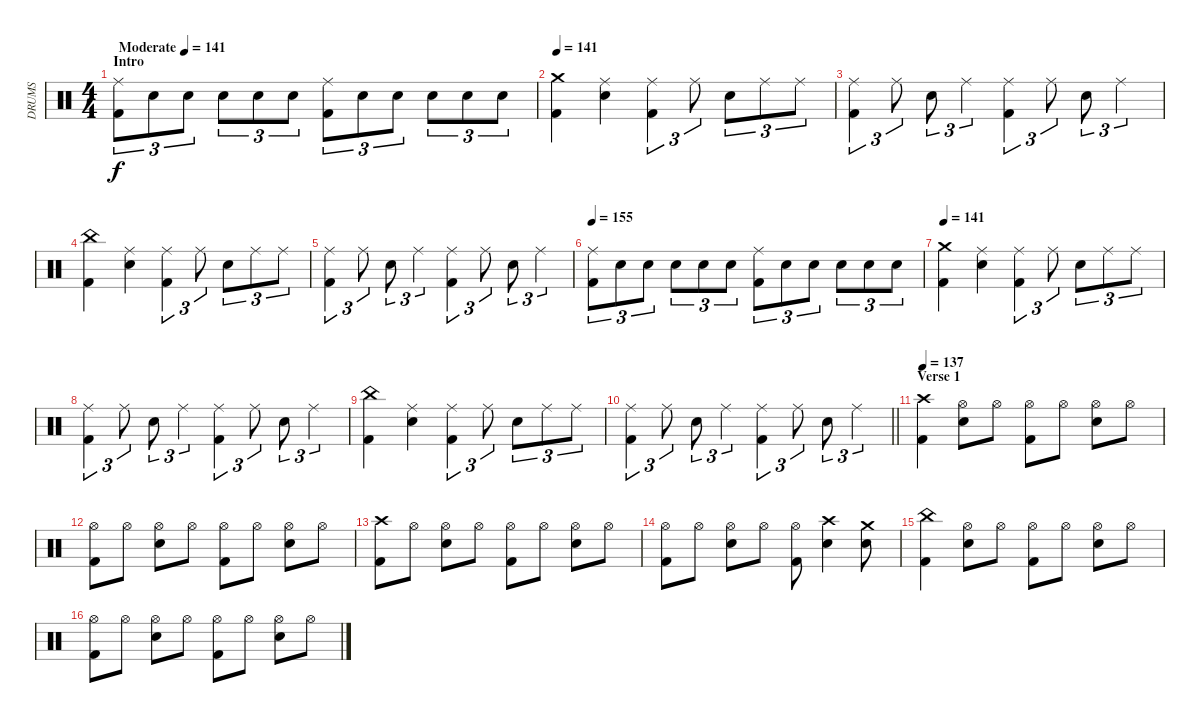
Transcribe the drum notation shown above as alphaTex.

\track ("DRUMS" "DRUMS") {instrument percussion}
\staff {score}
\articulation defaults
\ts (4 4)
\section ("" "Intro")
\tempo (141 "Moderate")
\tempo 157
\tempo (141 "Moderate")
\clef neutral
\ks c
("Ride (middle)" "Kick (hit) 2").8{tu (3 2) dy f} "Snare (hit) 2".8{tu (3 2)} "Snare (hit) 2".8{tu (3 2)} "Snare (hit) 2".8{tu (3 2)} "Snare (hit) 2".8{tu (3 2)} "Snare (hit) 2".8{tu (3 2)} ("Ride (middle)" "Kick (hit) 2").8{tu (3 2)} "Snare (hit) 2".8{tu (3 2)} "Snare (hit) 2".8{tu (3 2)} "Snare (hit) 2".8{tu (3 2)} "Snare (hit) 2".8{tu (3 2)} "Snare (hit) 2".8{tu (3 2)} |
\tempo 141
("Crash medium (hit)" "Kick (hit) 2").4 ("Ride (middle)" "Snare (hit) 2").4 ("Ride (middle)" "Kick (hit) 2").4{tu (3 2)} "Ride (middle)".8{tu (3 2)} "Snare (hit) 2".8{tu (3 2)} "Ride (middle)".8{tu (3 2)} "Ride (middle)".8{tu (3 2)} |
("Ride (middle)" "Kick (hit) 2").4{tu (3 2)} "Ride (middle)".8{tu (3 2)} "Snare (hit) 2".8{tu (3 2)} "Ride (middle)".4{tu (3 2)} ("Ride (middle)" "Kick (hit) 2").4{tu (3 2)} "Ride (middle)".8{tu (3 2)} "Snare (hit) 2".8{tu (3 2)} "Ride (middle)".4{tu (3 2)} |
("China (hit)" "Kick (hit) 2").4 ("Ride (middle)" "Snare (hit) 2").4 ("Ride (middle)" "Kick (hit) 2").4{tu (3 2)} "Ride (middle)".8{tu (3 2)} "Snare (hit) 2".8{tu (3 2)} "Ride (middle)".8{tu (3 2)} "Ride (middle)".8{tu (3 2)} |
("Ride (middle)" "Kick (hit) 2").4{tu (3 2)} "Ride (middle)".8{tu (3 2)} "Snare (hit) 2".8{tu (3 2)} "Ride (middle)".4{tu (3 2)} ("Ride (middle)" "Kick (hit) 2").4{tu (3 2)} "Ride (middle)".8{tu (3 2)} "Snare (hit) 2".8{tu (3 2)} "Ride (middle)".4{tu (3 2)} |
\tempo 155
("Ride (middle)" "Kick (hit) 2").8{tu (3 2)} "Snare (hit) 2".8{tu (3 2)} "Snare (hit) 2".8{tu (3 2)} "Snare (hit) 2".8{tu (3 2)} "Snare (hit) 2".8{tu (3 2)} "Snare (hit) 2".8{tu (3 2)} ("Ride (middle)" "Kick (hit) 2").8{tu (3 2)} "Snare (hit) 2".8{tu (3 2)} "Snare (hit) 2".8{tu (3 2)} "Snare (hit) 2".8{tu (3 2)} "Snare (hit) 2".8{tu (3 2)} "Snare (hit) 2".8{tu (3 2)} |
\tempo 141
("Crash medium (hit)" "Kick (hit) 2").4 ("Ride (middle)" "Snare (hit) 2").4 ("Ride (middle)" "Kick (hit) 2").4{tu (3 2)} "Ride (middle)".8{tu (3 2)} "Snare (hit) 2".8{tu (3 2)} "Ride (middle)".8{tu (3 2)} "Ride (middle)".8{tu (3 2)} |
("Ride (middle)" "Kick (hit) 2").4{tu (3 2)} "Ride (middle)".8{tu (3 2)} "Snare (hit) 2".8{tu (3 2)} "Ride (middle)".4{tu (3 2)} ("Ride (middle)" "Kick (hit) 2").4{tu (3 2)} "Ride (middle)".8{tu (3 2)} "Snare (hit) 2".8{tu (3 2)} "Ride (middle)".4{tu (3 2)} |
("China (hit)" "Kick (hit) 2").4 ("Ride (middle)" "Snare (hit) 2").4 ("Ride (middle)" "Kick (hit) 2").4{tu (3 2)} "Ride (middle)".8{tu (3 2)} "Snare (hit) 2".8{tu (3 2)} "Ride (middle)".8{tu (3 2)} "Ride (middle)".8{tu (3 2)} |
\barLineRight lightlight
("Ride (middle)" "Kick (hit) 2").4{tu (3 2)} "Ride (middle)".8{tu (3 2)} "Snare (hit) 2".8{tu (3 2)} "Ride (middle)".4{tu (3 2)} ("Ride (middle)" "Kick (hit) 2").4{tu (3 2)} "Ride (middle)".8{tu (3 2)} "Snare (hit) 2".8{tu (3 2)} "Ride (middle)".4{tu (3 2)} |
\section ("" "Verse 1")
\tempo 137
("Crash high (hit)" "Kick (hit) 2").4 ("Hi-Hat (open)" "Snare (hit) 2").8 "Hi-Hat (open)".8 ("Hi-Hat (open)" "Kick (hit) 2").8 "Hi-Hat (open)".8 ("Hi-Hat (open)" "Snare (hit) 2").8 "Hi-Hat (open)".8 |
("Hi-Hat (open)" "Kick (hit) 2").8 "Hi-Hat (open)".8 ("Hi-Hat (open)" "Snare (hit) 2").8 "Hi-Hat (open)".8 ("Hi-Hat (open)" "Kick (hit) 2").8 "Hi-Hat (open)".8 ("Hi-Hat (open)" "Snare (hit) 2").8 "Hi-Hat (open)".8 |
("Crash high (hit)" "Kick (hit) 2").8 "Hi-Hat (open)".8 ("Hi-Hat (open)" "Snare (hit) 2").8 "Hi-Hat (open)".8 ("Hi-Hat (open)" "Kick (hit) 2").8 "Hi-Hat (open)".8 ("Hi-Hat (open)" "Snare (hit) 2").8 "Hi-Hat (open)".8 |
("Hi-Hat (open)" "Kick (hit) 2").8 "Hi-Hat (open)".8 ("Hi-Hat (open)" "Snare (hit) 2").8 "Hi-Hat (open)".8 ("Hi-Hat (open)" "Kick (hit) 2").8 ("Crash high (hit)" "Snare (hit) 2").4 ("Crash medium (hit)" "Snare (hit) 2").8 |
("China (hit)" "Kick (hit) 2").4 ("Hi-Hat (open)" "Snare (hit) 2").8 "Hi-Hat (open)".8 ("Hi-Hat (open)" "Kick (hit) 2").8 "Hi-Hat (open)".8 ("Hi-Hat (open)" "Snare (hit) 2").8 "Hi-Hat (open)".8 |
("Hi-Hat (open)" "Kick (hit) 2").8 "Hi-Hat (open)".8 ("Hi-Hat (open)" "Snare (hit) 2").8 "Hi-Hat (open)".8 ("Hi-Hat (open)" "Kick (hit) 2").8 "Hi-Hat (open)".8 ("Hi-Hat (open)" "Snare (hit) 2").8 "Hi-Hat (open)".8
